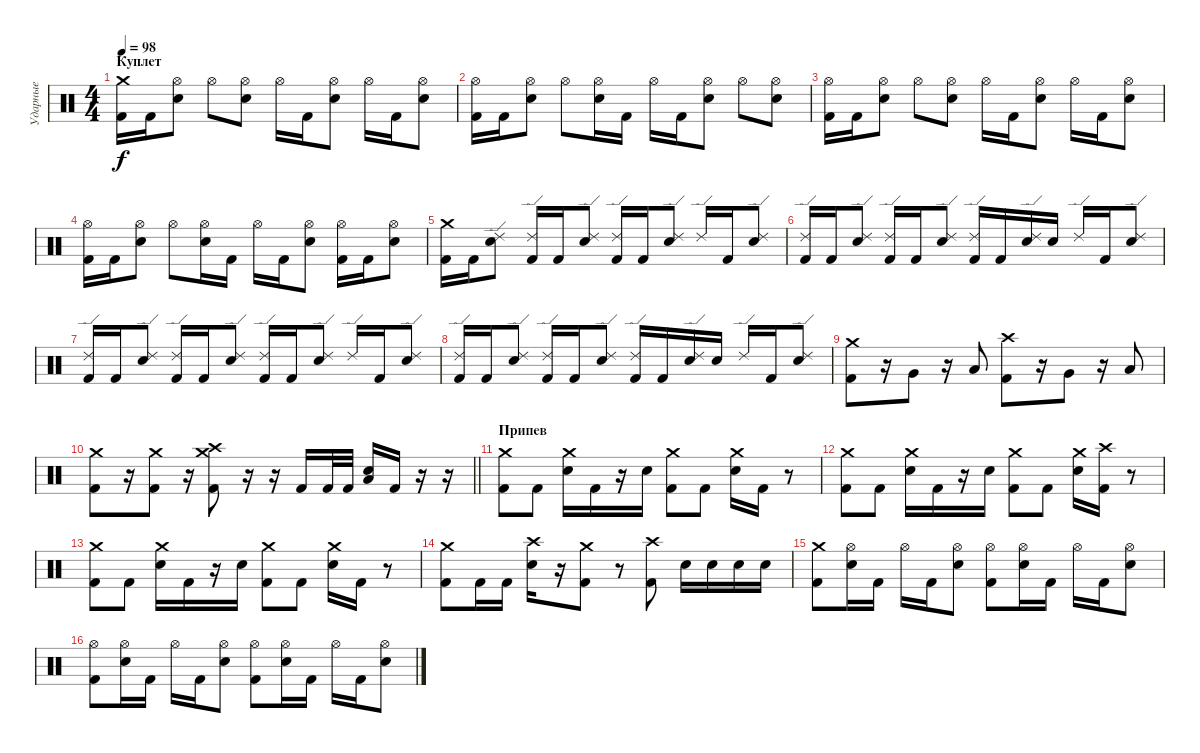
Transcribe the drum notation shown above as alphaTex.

\track ("Ударные" "Ударные") {instrument percussion}
\staff {score}
\articulation defaults
\ts (4 4)
\section ("" "Куплет")
\tempo 98
\clef neutral
\ks c
("Crash medium (hit)" "Kick (hit) 2").16{dy f} "Kick (hit) 2".16 ("Hi-Hat (open)" "Electric Snare (hit)").8 "Hi-Hat (open)".8 ("Hi-Hat (open)" "Electric Snare (hit)").8 "Hi-Hat (open)".16 "Kick (hit) 2".16 ("Hi-Hat (open)" "Electric Snare (hit)").8 "Hi-Hat (open)".16 "Kick (hit) 2".16 ("Hi-Hat (open)" "Electric Snare (hit)").8 |
("Hi-Hat (open)" "Kick (hit) 2").16 "Kick (hit) 2".16 ("Hi-Hat (open)" "Electric Snare (hit)").8 "Hi-Hat (open)".8 ("Hi-Hat (open)" "Electric Snare (hit)").16 "Kick (hit) 2".16 "Hi-Hat (open)".16 "Kick (hit) 2".16 ("Hi-Hat (open)" "Electric Snare (hit)").8 "Hi-Hat (open)".8 ("Hi-Hat (open)" "Electric Snare (hit)").8 |
("Hi-Hat (open)" "Kick (hit) 2").16 "Kick (hit) 2".16 ("Hi-Hat (open)" "Electric Snare (hit)").8 "Hi-Hat (open)".8 ("Hi-Hat (open)" "Electric Snare (hit)").8 "Hi-Hat (open)".16 "Kick (hit) 2".16 ("Hi-Hat (open)" "Electric Snare (hit)").8 "Hi-Hat (open)".16 "Kick (hit) 2".16 ("Hi-Hat (open)" "Electric Snare (hit)").8 |
("Hi-Hat (open)" "Kick (hit) 2").16 "Kick (hit) 2".16 ("Hi-Hat (open)" "Electric Snare (hit)").8 "Hi-Hat (open)".8 ("Hi-Hat (open)" "Electric Snare (hit)").16 "Kick (hit) 2".16 "Hi-Hat (open)".16 "Kick (hit) 2".16 ("Hi-Hat (open)" "Electric Snare (hit)").8 ("Hi-Hat (open)" "Kick (hit) 2").16 "Kick (hit) 2".16 ("Hi-Hat (open)" "Electric Snare (hit)").8 |
("Crash medium (hit)" "Kick (hit) 2").16 "Kick (hit) 2".16 ("Ride (edge) 2" "Electric Snare (hit)").8 ("Ride (edge) 2" "Kick (hit) 2").16 "Kick (hit) 2".16 ("Ride (edge) 2" "Electric Snare (hit)").8 ("Ride (edge) 2" "Kick (hit) 2").16 "Kick (hit) 2".16 ("Ride (edge) 2" "Electric Snare (hit)").8 "Ride (edge) 2".16 "Kick (hit) 2".16 ("Ride (edge) 2" "Electric Snare (hit)").8 |
("Ride (edge) 2" "Kick (hit) 2").16 "Kick (hit) 2".16 ("Ride (edge) 2" "Electric Snare (hit)").8 ("Ride (edge) 2" "Kick (hit) 2").16 "Kick (hit) 2".16 ("Ride (edge) 2" "Electric Snare (hit)").8 ("Ride (edge) 2" "Kick (hit) 2").16 "Kick (hit) 2".16 ("Ride (edge) 2" "Electric Snare (hit)").16 "Electric Snare (hit)".16 "Ride (edge) 2".16 "Kick (hit) 2".16 ("Ride (edge) 2" "Electric Snare (hit)").8 |
("Ride (edge) 2" "Kick (hit) 2").16 "Kick (hit) 2".16 ("Ride (edge) 2" "Electric Snare (hit)").8 ("Ride (edge) 2" "Kick (hit) 2").16 "Kick (hit) 2".16 ("Ride (edge) 2" "Electric Snare (hit)").8 ("Ride (edge) 2" "Kick (hit) 2").16 "Kick (hit) 2".16 ("Ride (edge) 2" "Electric Snare (hit)").8 "Ride (edge) 2".16 "Kick (hit) 2".16 ("Ride (edge) 2" "Electric Snare (hit)").8 |
("Ride (edge) 2" "Kick (hit) 2").16 "Kick (hit) 2".16 ("Ride (edge) 2" "Electric Snare (hit)").8 ("Ride (edge) 2" "Kick (hit) 2").16 "Kick (hit) 2".16 ("Ride (edge) 2" "Electric Snare (hit)").8 ("Ride (edge) 2" "Kick (hit) 2").16 "Kick (hit) 2".16 ("Ride (edge) 2" "Electric Snare (hit)").16 "Electric Snare (hit)".16 "Ride (edge) 2".16 "Kick (hit) 2".16 ("Ride (edge) 2" "Electric Snare (hit)").8 |
("Crash medium (hit)" "Kick (hit) 2").8 r.16 "Very Low Tom (hit)".8 r.16 "Low Floor Tom (hit)".8 ("Crash high (hit)" "Kick (hit) 2").8 r.16 "Very Low Tom (hit)".8 r.16 "Low Floor Tom (hit)".8 |
\barLineRight lightlight
("Crash medium (hit)" "Kick (hit) 2").8 r.16 ("Crash medium (hit)" "Kick (hit) 2").8 r.16 ("Crash high (hit)" "Crash medium (hit)" "Kick (hit) 2").8 r.16 r.16 "Kick (hit) 2".16 "Kick (hit) 2".32 "Kick (hit) 2".32 ("Low Floor Tom (hit)" "Electric Snare (hit)").16 "Kick (hit) 2".16 r.16 r.16 |
\section ("" "Припев")
("Crash medium (hit)" "Kick (hit) 2").8 "Kick (hit) 2".8 ("Crash medium (hit)" "Electric Snare (hit)").16 "Kick (hit) 2".16 r.16 "Electric Snare (hit)".16 ("Crash medium (hit)" "Kick (hit) 2").8 "Kick (hit) 2".8 ("Crash medium (hit)" "Electric Snare (hit)").16 "Kick (hit) 2".16 r.8 |
("Crash medium (hit)" "Kick (hit) 2").8 "Kick (hit) 2".8 ("Crash medium (hit)" "Electric Snare (hit)").16 "Kick (hit) 2".16 r.16 "Electric Snare (hit)".16 ("Crash medium (hit)" "Kick (hit) 2").8 "Kick (hit) 2".8 ("Crash medium (hit)" "Electric Snare (hit)").16 ("Crash high (hit)" "Kick (hit) 2").16 r.8 |
("Crash medium (hit)" "Kick (hit) 2").8 "Kick (hit) 2".8 ("Crash medium (hit)" "Electric Snare (hit)").16 "Kick (hit) 2".16 r.16 "Electric Snare (hit)".16 ("Crash medium (hit)" "Kick (hit) 2").8 "Kick (hit) 2".8 ("Crash medium (hit)" "Electric Snare (hit)").16 "Kick (hit) 2".16 r.8 |
("Crash medium (hit)" "Kick (hit) 2").8 "Kick (hit) 2".16 "Kick (hit) 2".16 ("Crash high (hit)" "Electric Snare (hit)").16 r.16 ("Crash medium (hit)" "Kick (hit) 2").8 r.8 ("Crash high (hit)" "Kick (hit) 2").8 "Electric Snare (hit)".16 "Electric Snare (hit)".16 "Electric Snare (hit)".16 "Electric Snare (hit)".16 |
("Crash medium (hit)" "Kick (hit) 2").8 ("Hi-Hat (open)" "Electric Snare (hit)").16 "Kick (hit) 2".16 "Hi-Hat (open)".16 "Kick (hit) 2".16 ("Hi-Hat (open)" "Electric Snare (hit)").8 ("Hi-Hat (open)" "Kick (hit) 2").8 ("Hi-Hat (open)" "Electric Snare (hit)").16 "Kick (hit) 2".16 "Hi-Hat (open)".16 "Kick (hit) 2".16 ("Hi-Hat (open)" "Electric Snare (hit)").8 |
("Hi-Hat (open)" "Kick (hit) 2").8 ("Hi-Hat (open)" "Electric Snare (hit)").16 "Kick (hit) 2".16 "Hi-Hat (open)".16 "Kick (hit) 2".16 ("Hi-Hat (open)" "Electric Snare (hit)").8 ("Hi-Hat (open)" "Kick (hit) 2").8 ("Hi-Hat (open)" "Electric Snare (hit)").16 "Kick (hit) 2".16 "Hi-Hat (open)".16 "Kick (hit) 2".16 ("Hi-Hat (open)" "Electric Snare (hit)").8
